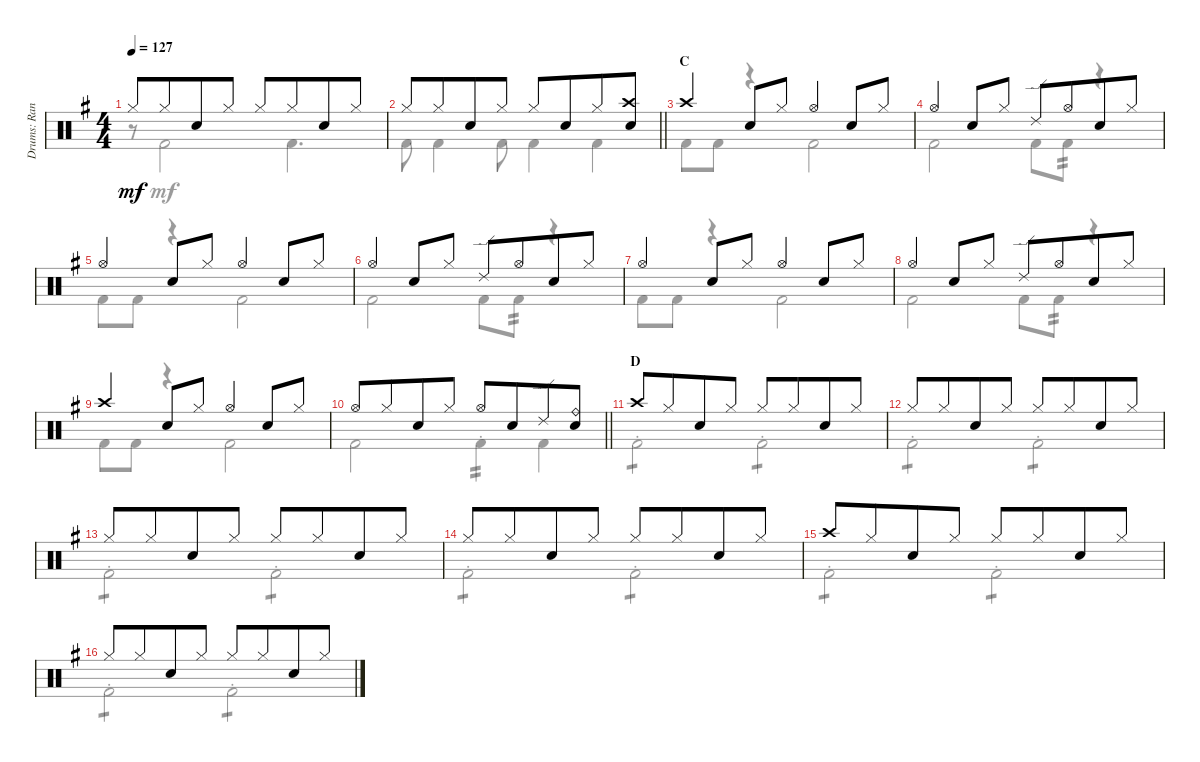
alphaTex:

\track ("Drums: Randy" "Drums: Ran") {instrument percussion}
\staff {score}
\articulation defaults
\voice
\ts (4 4)
\tempo 127
\clef neutral
\ks g "Hi-Hat (closed)".8{dy mf} "Hi-Hat (closed)".8{beam merge} "Snare (hit) 2".8 "Hi-Hat (closed)".8 "Hi-Hat (closed)".8 "Hi-Hat (closed)".8{beam merge} "Snare (hit) 2".8 "Hi-Hat (closed)".8
|
\barLineRight lightlight "Hi-Hat (closed)".8 "Hi-Hat (closed)".8{beam merge} "Snare (hit) 2".8 "Hi-Hat (closed)".8 "Hi-Hat (closed)".8 "Snare (hit) 2".8{beam merge} "Hi-Hat (closed)".8
("Crash high (hit)" "Snare (hit) 2").8 |
\section ("" "C")
"Crash high (hit)".4 "Snare (hit) 2".8 "Hi-Hat (closed)".8 "Hi-Hat (open)".4 "Snare (hit) 2".8 "Hi-Hat (closed)".8 |
"Hi-Hat (open)".4 "Snare (hit) 2".8 "Hi-Hat (closed)".8 "Ride (edge) 2".8 "Hi-Hat (open)".8{beam merge} "Snare (hit) 2".8 "Hi-Hat (closed)".8 |
"Hi-Hat (open)".4 "Snare (hit) 2".8 "Hi-Hat (closed)".8 "Hi-Hat (open)".4 "Snare (hit) 2".8 "Hi-Hat (closed)".8 |
"Hi-Hat (open)".4 "Snare (hit) 2".8 "Hi-Hat (closed)".8 "Ride (edge) 2".8 "Hi-Hat (open)".8{beam merge} "Snare (hit) 2".8 "Hi-Hat (closed)".8 |
"Hi-Hat (open)".4 "Snare (hit) 2".8 "Hi-Hat (closed)".8 "Hi-Hat (open)".4 "Snare (hit) 2".8 "Hi-Hat (closed)".8 |
"Hi-Hat (open)".4 "Snare (hit) 2".8 "Hi-Hat (closed)".8 "Ride (edge) 2".8 "Hi-Hat (open)".8{beam merge} "Snare (hit) 2".8 "Hi-Hat (closed)".8 |
"Crash high (hit)".4 "Snare (hit) 2".8 "Hi-Hat (closed)".8 "Hi-Hat (open)".4 "Snare (hit) 2".8 "Hi-Hat (closed)".8 |
\barLineRight lightlight "Hi-Hat (open)".8 "Hi-Hat (closed)".8{beam merge} "Snare (hit) 2".8 "Hi-Hat (closed)".8 "Hi-Hat (open)".8 "Snare (hit) 2".8{beam merge} "Ride (edge) 2".8
("Ride (bell)" "Snare (hit) 2").8 |
\section ("" "D")
"Crash high (hit)".8 "Hi-Hat (closed)".8{beam merge} "Snare (hit) 2".8 "Hi-Hat (closed)".8 "Hi-Hat (closed)".8 "Hi-Hat (closed)".8{beam merge} "Snare (hit) 2".8 "Hi-Hat (closed)".8 |
"Hi-Hat (closed)".8 "Hi-Hat (closed)".8{beam merge} "Snare (hit) 2".8 "Hi-Hat (closed)".8 "Hi-Hat (closed)".8 "Hi-Hat (closed)".8{beam merge} "Snare (hit) 2".8 "Hi-Hat (closed)".8 |
"Hi-Hat (closed)".8 "Hi-Hat (closed)".8{beam merge} "Snare (hit) 2".8 "Hi-Hat (closed)".8 "Hi-Hat (closed)".8 "Hi-Hat (closed)".8{beam merge} "Snare (hit) 2".8 "Hi-Hat (closed)".8 |
"Hi-Hat (closed)".8 "Hi-Hat (closed)".8{beam merge} "Snare (hit) 2".8 "Hi-Hat (closed)".8 "Hi-Hat (closed)".8 "Hi-Hat (closed)".8{beam merge} "Snare (hit) 2".8 "Hi-Hat (closed)".8 |
"Crash high (hit)".8 "Hi-Hat (closed)".8{beam merge} "Snare (hit) 2".8 "Hi-Hat (closed)".8 "Hi-Hat (closed)".8 "Hi-Hat (closed)".8{beam merge} "Snare (hit) 2".8 "Hi-Hat (closed)".8 |
"Hi-Hat (closed)".8 "Hi-Hat (closed)".8{beam merge} "Snare (hit) 2".8 "Hi-Hat (closed)".8 "Hi-Hat (closed)".8 "Hi-Hat (closed)".8{beam merge} "Snare (hit) 2".8 "Hi-Hat (closed)".8
\voice
\clef neutral
\ottava regular
\simile none
\ks g
r.8{dy mf} "Kick (hit) 2".2 "Kick (hit) 2".4{d} |
\barLineRight lightlight "Kick (hit) 2".8 "Kick (hit) 2".4 "Kick (hit) 2".8 "Kick (hit) 2".4 "Kick (hit) 2".4
|
"Kick (hit) 2".8 "Kick (hit) 2".8 r.4 "Kick (hit) 2".2 |
"Kick (hit) 2".2 "Kick (hit) 2".8 "Kick (hit) 2".8{tp 2} r.4 |
"Kick (hit) 2".8 "Kick (hit) 2".8 r.4 "Kick (hit) 2".2 |
"Kick (hit) 2".2 "Kick (hit) 2".8 "Kick (hit) 2".8{tp 2} r.4 |
"Kick (hit) 2".8 "Kick (hit) 2".8 r.4 "Kick (hit) 2".2 |
"Kick (hit) 2".2 "Kick (hit) 2".8 "Kick (hit) 2".8{tp 2} r.4 |
"Kick (hit) 2".8 "Kick (hit) 2".8 r.4 "Kick (hit) 2".2 |
\barLineRight lightlight "Kick (hit) 2".2 "Kick (hit) 2"{st}.4{tp 2} "Kick (hit) 2".4
|
"Kick (hit) 2"{st}.2{tp 1} "Kick (hit) 2"{st}.2{tp 1} |
"Kick (hit) 2"{st}.2{tp 1} "Kick (hit) 2"{st}.2{tp 1} |
"Kick (hit) 2"{st}.2{tp 1} "Kick (hit) 2"{st}.2{tp 1} |
"Kick (hit) 2"{st}.2{tp 1} "Kick (hit) 2"{st}.2{tp 1} |
"Kick (hit) 2"{st}.2{tp 1} "Kick (hit) 2"{st}.2{tp 1} |
"Kick (hit) 2"{st}.2{tp 1} "Kick (hit) 2"{st}.2{tp 1}
